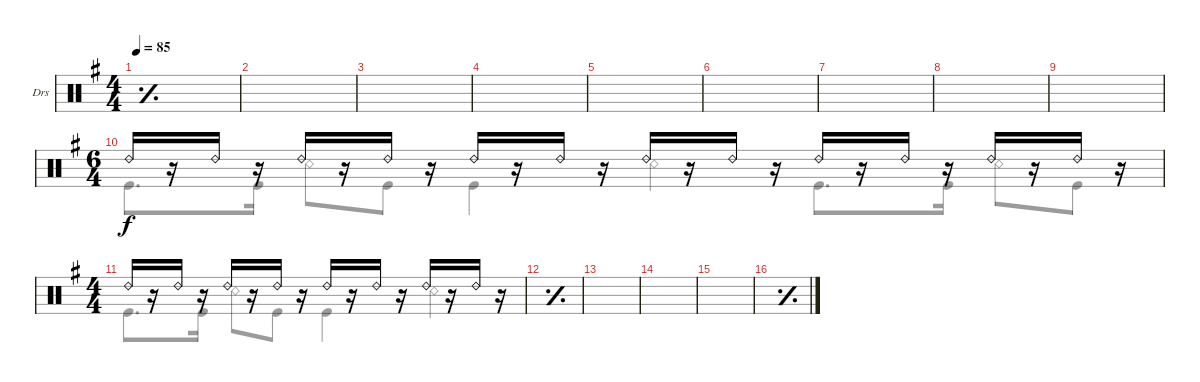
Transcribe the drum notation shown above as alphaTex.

\defaultSystemsLayout 4
\bracketExtendMode nobrackets
\firstSystemTrackNameOrientation horizontal
\otherSystemsTrackNameOrientation horizontal
\track ("Drums" "Drs") {instrument percussion}
\staff {score}
\articulation defaults
\voice
\ts (4 4)
\scale
0.257082
\tempo 85
\accidentals auto
\clef neutral
\ottava regular
\simile simple
\ks g
|
\scale
0.246901 |
|
|
|
|
|
|
\scale
0.143382 |
\ts (6 4)
\scale
0.301471
\simile none "Ride (bell) 2".16
r.16 "Ride (bell) 2".16 r.16 "Ride (bell) 2".16 r.16 "Ride (bell) 2".16 r.16 "Ride (bell) 2".16 r.16 "Ride (bell) 2".16 r.16 "Ride (bell) 2".16 r.16 "Ride (bell) 2".16 r.16 "Ride (bell) 2".16 r.16 "Ride (bell) 2".16 r.16 "Ride (bell) 2".16 r.16 "Ride (bell) 2".16 r.16 |
\ts (4 4)
\scale
0.213235 "Ride (bell) 2".16 r.16 "Ride (bell) 2".16 r.16 "Ride (bell) 2".16 r.16 "Ride (bell) 2".16 r.16 "Ride (bell) 2".16 r.16 "Ride (bell) 2".16 r.16 "Ride (bell) 2".16 r.16 "Ride (bell) 2".16 r.16 |
\scale
0.105452
\simile simple
|
\scale
0.144141 |
\scale
0.092659 |
\scale
0.211823 |
\scale
0.20907
\voice
\clef neutral
\ottava regular
\simile simple
\ks g
|
|
|
|
|
|
|
|
|
\simile none "Kick (hit)".8{d} "Kick (hit)".16 "Snare (rim shot)".8 "Kick (hit)".8 "Kick (hit)".4 "Snare (rim shot)".4 "Kick (hit)".8{d} "Kick (hit)".16 "Snare (rim shot)".8 "Kick (hit)".8
|
"Kick (hit)".8{d} "Kick (hit)".16 "Snare (rim shot)".8 "Kick (hit)".8 "Kick (hit)".4 "Snare (rim shot)".4 |
\simile simple
|
|
|
|
